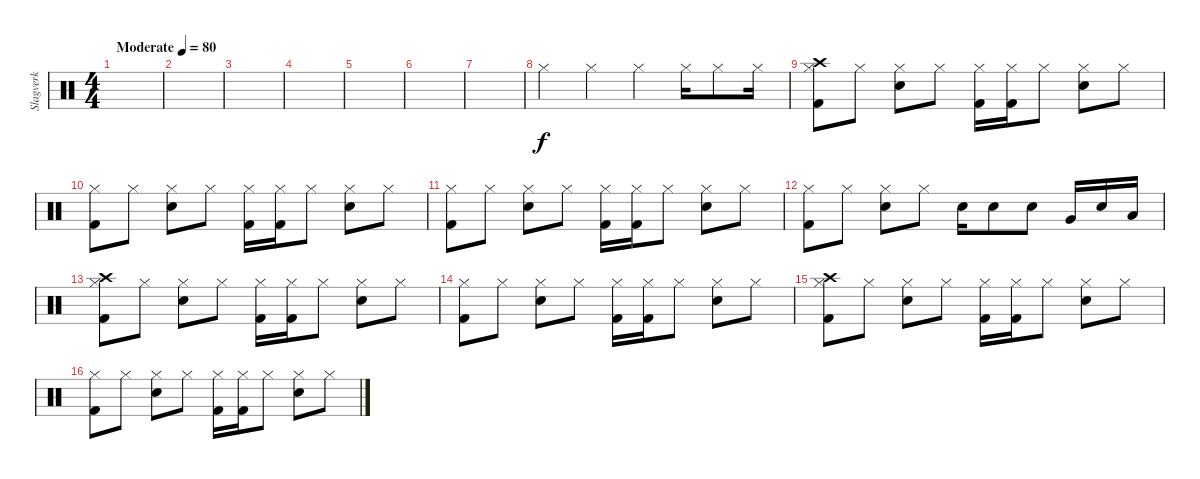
\track ("Slagverk" "Slagverk") {instrument percussion}
\staff {score}
\articulation defaults
\ts (4 4)
\tempo (80 "Moderate")
\clef neutral
\ks c
|
|
|
|
|
|
|
"Hi-Hat (closed)".4 "Hi-Hat (closed)".4 "Hi-Hat (closed)".4 "Hi-Hat (closed)".16 "Hi-Hat (closed)".8 "Hi-Hat (closed)".16 |
("Crash high (hit)" "Hi-Hat (closed)" "Kick (hit) 2").8 "Hi-Hat (closed)".8 ("Hi-Hat (closed)" "Electric Snare (hit)").8 "Hi-Hat (closed)".8 ("Hi-Hat (closed)" "Kick (hit) 2").16 ("Hi-Hat (closed)" "Kick (hit) 2").16 "Hi-Hat (closed)".8 ("Hi-Hat (closed)" "Electric Snare (hit)").8 "Hi-Hat (closed)".8 |
("Hi-Hat (closed)" "Kick (hit) 2").8 "Hi-Hat (closed)".8 ("Hi-Hat (closed)" "Electric Snare (hit)").8 "Hi-Hat (closed)".8 ("Hi-Hat (closed)" "Kick (hit) 2").16 ("Hi-Hat (closed)" "Kick (hit) 2").16 "Hi-Hat (closed)".8 ("Hi-Hat (closed)" "Electric Snare (hit)").8 "Hi-Hat (closed)".8 |
("Hi-Hat (closed)" "Kick (hit) 2").8 "Hi-Hat (closed)".8 ("Hi-Hat (closed)" "Electric Snare (hit)").8 "Hi-Hat (closed)".8 ("Hi-Hat (closed)" "Kick (hit) 2").16 ("Hi-Hat (closed)" "Kick (hit) 2").16 "Hi-Hat (closed)".8 ("Hi-Hat (closed)" "Electric Snare (hit)").8 "Hi-Hat (closed)".8 |
("Hi-Hat (closed)" "Kick (hit) 2").8 "Hi-Hat (closed)".8 ("Hi-Hat (closed)" "Electric Snare (hit)").8 "Hi-Hat (closed)".8 "Electric Snare (hit)".16 "Electric Snare (hit)".8 "Electric Snare (hit)".8 "Very Low Tom (hit)".16 "Electric Snare (hit)".16 "Low Floor Tom (hit)".16 |
("Crash high (hit)" "Hi-Hat (closed)" "Kick (hit) 2").8 "Hi-Hat (closed)".8 ("Hi-Hat (closed)" "Electric Snare (hit)").8 "Hi-Hat (closed)".8 ("Hi-Hat (closed)" "Kick (hit) 2").16 ("Hi-Hat (closed)" "Kick (hit) 2").16 "Hi-Hat (closed)".8 ("Hi-Hat (closed)" "Electric Snare (hit)").8 "Hi-Hat (closed)".8 |
("Hi-Hat (closed)" "Kick (hit) 2").8 "Hi-Hat (closed)".8 ("Hi-Hat (closed)" "Electric Snare (hit)").8 "Hi-Hat (closed)".8 ("Hi-Hat (closed)" "Kick (hit) 2").16 ("Hi-Hat (closed)" "Kick (hit) 2").16 "Hi-Hat (closed)".8 ("Hi-Hat (closed)" "Electric Snare (hit)").8 "Hi-Hat (closed)".8 |
("Crash high (hit)" "Hi-Hat (closed)" "Kick (hit) 2").8 "Hi-Hat (closed)".8 ("Hi-Hat (closed)" "Electric Snare (hit)").8 "Hi-Hat (closed)".8 ("Hi-Hat (closed)" "Kick (hit) 2").16 ("Hi-Hat (closed)" "Kick (hit) 2").16 "Hi-Hat (closed)".8 ("Hi-Hat (closed)" "Electric Snare (hit)").8 "Hi-Hat (closed)".8 |
("Hi-Hat (closed)" "Kick (hit) 2").8 "Hi-Hat (closed)".8 ("Hi-Hat (closed)" "Electric Snare (hit)").8 "Hi-Hat (closed)".8 ("Hi-Hat (closed)" "Kick (hit) 2").16 ("Hi-Hat (closed)" "Kick (hit) 2").16 "Hi-Hat (closed)".8 ("Hi-Hat (closed)" "Electric Snare (hit)").8 "Hi-Hat (closed)".8
